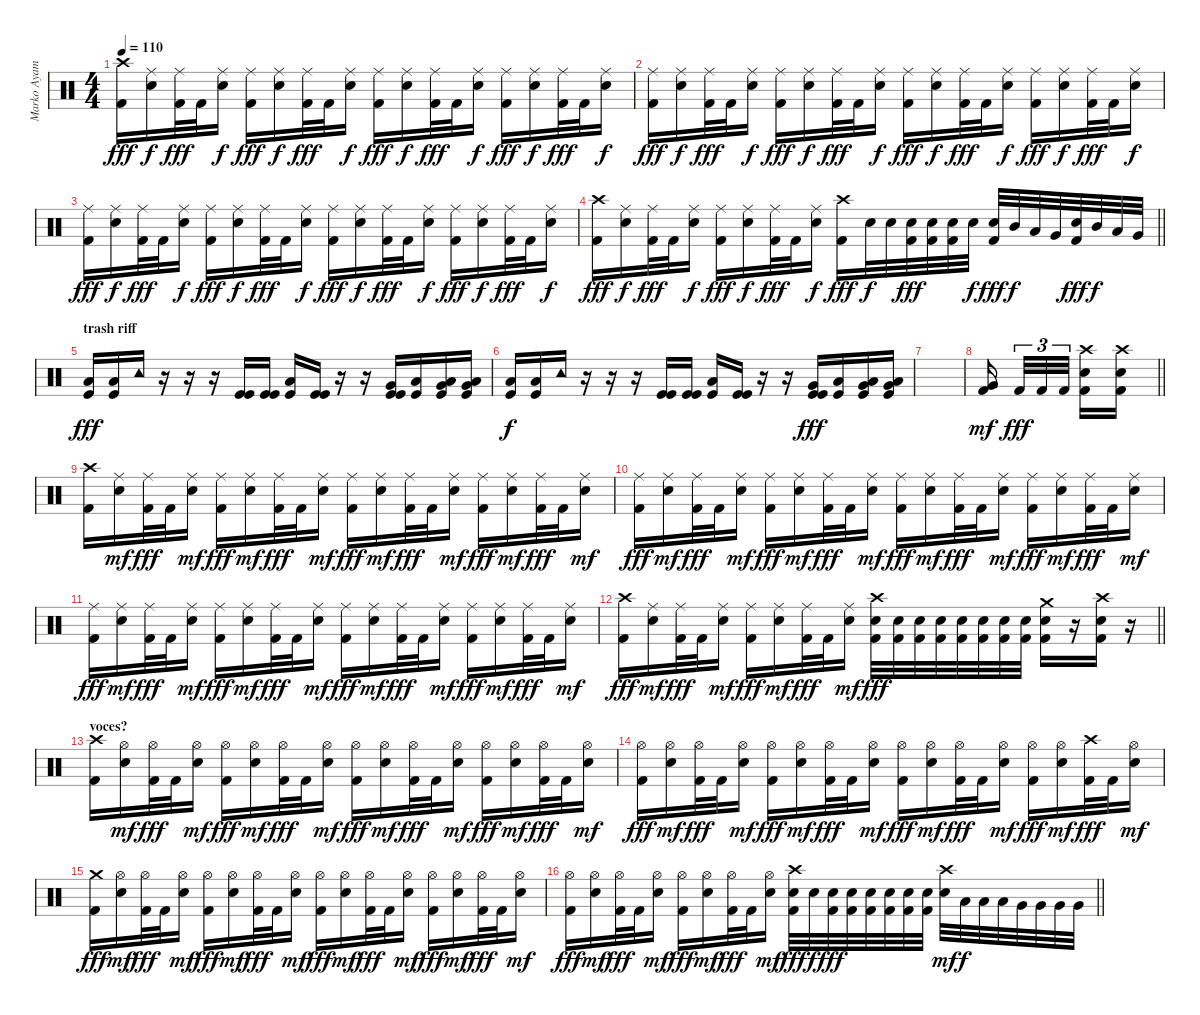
\track ("Marko Ayamani" "Marko Ayam") {instrument percussion}
\staff {score}
\articulation defaults
\ts (4 4)
\tempo 110
\clef neutral
\ks c
("Crash high (hit)" "Kick (hit) 2").16{dy fff} ("Ride (middle)" "Snare (hit) 2").16{dy f} ("Ride (middle)" "Kick (hit) 2").32{dy fff} "Kick (hit) 2".32 ("Ride (middle)" "Snare (hit) 2").16{dy f} ("Ride (middle)" "Kick (hit) 2").16{dy fff} ("Ride (middle)" "Snare (hit) 2").16{dy f} ("Ride (middle)" "Kick (hit) 2").32{dy fff} "Kick (hit) 2".32 ("Ride (middle)" "Snare (hit) 2").16{dy f} ("Ride (middle)" "Kick (hit) 2").16{dy fff} ("Ride (middle)" "Snare (hit) 2").16{dy f} ("Ride (middle)" "Kick (hit) 2").32{dy fff} "Kick (hit) 2".32 ("Ride (middle)" "Snare (hit) 2").16{dy f} ("Ride (middle)" "Kick (hit) 2").16{dy fff} ("Ride (middle)" "Snare (hit) 2").16{dy f} ("Ride (middle)" "Kick (hit) 2").32{dy fff} "Kick (hit) 2".32 ("Ride (middle)" "Snare (hit) 2").16{dy f} |
("Ride (middle)" "Kick (hit) 2").16{dy fff} ("Ride (middle)" "Snare (hit) 2").16{dy f} ("Ride (middle)" "Kick (hit) 2").32{dy fff} "Kick (hit) 2".32 ("Ride (middle)" "Snare (hit) 2").16{dy f} ("Ride (middle)" "Kick (hit) 2").16{dy fff} ("Ride (middle)" "Snare (hit) 2").16{dy f} ("Ride (middle)" "Kick (hit) 2").32{dy fff} "Kick (hit) 2".32 ("Ride (middle)" "Snare (hit) 2").16{dy f} ("Ride (middle)" "Kick (hit) 2").16{dy fff} ("Ride (middle)" "Snare (hit) 2").16{dy f} ("Ride (middle)" "Kick (hit) 2").32{dy fff} "Kick (hit) 2".32 ("Ride (middle)" "Snare (hit) 2").16{dy f} ("Ride (middle)" "Kick (hit) 2").16{dy fff} ("Ride (middle)" "Snare (hit) 2").16{dy f} ("Ride (middle)" "Kick (hit) 2").32{dy fff} "Kick (hit) 2".32 ("Ride (middle)" "Snare (hit) 2").16{dy f} |
("Ride (middle)" "Kick (hit) 2").16{dy fff} ("Ride (middle)" "Snare (hit) 2").16{dy f} ("Ride (middle)" "Kick (hit) 2").32{dy fff} "Kick (hit) 2".32 ("Ride (middle)" "Snare (hit) 2").16{dy f} ("Ride (middle)" "Kick (hit) 2").16{dy fff} ("Ride (middle)" "Snare (hit) 2").16{dy f} ("Ride (middle)" "Kick (hit) 2").32{dy fff} "Kick (hit) 2".32 ("Ride (middle)" "Snare (hit) 2").16{dy f} ("Ride (middle)" "Kick (hit) 2").16{dy fff} ("Ride (middle)" "Snare (hit) 2").16{dy f} ("Ride (middle)" "Kick (hit) 2").32{dy fff} "Kick (hit) 2".32 ("Ride (middle)" "Snare (hit) 2").16{dy f} ("Ride (middle)" "Kick (hit) 2").16{dy fff} ("Ride (middle)" "Snare (hit) 2").16{dy f} ("Ride (middle)" "Kick (hit) 2").32{dy fff} "Kick (hit) 2".32 ("Ride (middle)" "Snare (hit) 2").16{dy f} |
\barLineRight lightlight
("Crash high (hit)" "Kick (hit) 2").16{dy fff} ("Ride (middle)" "Snare (hit) 2").16{dy f} ("Ride (middle)" "Kick (hit) 2").32{dy fff} "Kick (hit) 2".32 ("Ride (middle)" "Snare (hit) 2").16{dy f} ("Ride (middle)" "Kick (hit) 2").16{dy fff} ("Ride (middle)" "Snare (hit) 2").16{dy f} ("Ride (middle)" "Kick (hit) 2").32{dy fff} "Kick (hit) 2".32 ("Ride (middle)" "Snare (hit) 2").16{dy f} ("Crash high (hit)" "Kick (hit) 2").16{dy fff} "Snare (hit) 2".32{dy f} "Snare (hit) 2".32 ("Snare (hit) 2" "Kick (hit) 2").32{dy fff} ("Snare (hit) 2" "Kick (hit) 2").32 ("Snare (hit) 2" "Kick (hit) 2").32 "Snare (hit) 2".32{dy f} ("Snare (hit) 2" "Kick (hit) 2").32{dy fff} "Mid Tom (hit)".32{dy f} "Low Tom (hit)".32 "Very Low Tom (hit)".32 ("Snare (hit) 2" "Kick (hit) 2").32{dy fff} "Mid Tom (hit)".32{dy f} "Low Tom (hit)".32 "Very Low Tom (hit)".32 |
\section ("" "trash riff")
("Kick (hit)" "Low Floor Tom (hit)").16{dy fff} ("Low Floor Tom (hit)" "Kick (hit)").16 "Tambourine (hit)".16 r.16 r.16 r.16 ("Kick (hit)" "Kick (hit)").16 ("Kick (hit)" "Kick (hit)").16 ("Low Floor Tom (hit)" "Kick (hit)").16 ("Kick (hit)" "Kick (hit)").16 r.16 r.16 ("Kick (hit)" "Very Low Tom (hit)" "Kick (hit)").16 ("Low Floor Tom (hit)" "Kick (hit)").16 ("Very Low Tom (hit)" "Low Floor Tom (hit)" "Kick (hit)").16 ("Low Floor Tom (hit)" "Very Low Tom (hit)" "Kick (hit)").16 |
("Kick (hit)" "Low Floor Tom (hit)").16{dy f} ("Low Floor Tom (hit)" "Kick (hit)").16 "Tambourine (hit)".16 r.16 r.16 r.16 ("Kick (hit)" "Kick (hit)").16 ("Kick (hit)" "Kick (hit)").16 ("Low Floor Tom (hit)" "Kick (hit)").16 ("Kick (hit)" "Kick (hit)").16 r.16 r.16 ("Kick (hit)" "Very Low Tom (hit)" "Kick (hit)").16{dy fff} ("Low Floor Tom (hit)" "Kick (hit)").16 ("Very Low Tom (hit)" "Low Floor Tom (hit)" "Kick (hit)").16 ("Low Floor Tom (hit)" "Very Low Tom (hit)" "Kick (hit)").16 |
|
\barLineRight lightlight
("Very Low Tom (hit)" "Kick (hit) 2").16{dy mf beam splitsecondary} "Kick (hit) 2".32{tu (3 2) dy fff} "Kick (hit) 2".32{tu (3 2)} "Kick (hit) 2".32{tu (3 2) beam splitsecondary} ("Crash high (hit)" "Snare (hit) 2" "Kick (hit) 2").16 ("Crash high (hit)" "Snare (hit) 2" "Kick (hit) 2").16 |
("Crash high (hit)" "Kick (hit) 2").16 ("Ride (middle)" "Snare (hit) 2").16{dy mf} ("Ride (middle)" "Kick (hit) 2").32{dy fff} "Kick (hit) 2".32 ("Ride (middle)" "Snare (hit) 2").16{dy mf} ("Ride (middle)" "Kick (hit) 2").16{dy fff} ("Ride (middle)" "Snare (hit) 2").16{dy mf} ("Ride (middle)" "Kick (hit) 2").32{dy fff} "Kick (hit) 2".32 ("Ride (middle)" "Snare (hit) 2").16{dy mf} ("Ride (middle)" "Kick (hit) 2").16{dy fff} ("Ride (middle)" "Snare (hit) 2").16{dy mf} ("Ride (middle)" "Kick (hit) 2").32{dy fff} "Kick (hit) 2".32 ("Ride (middle)" "Snare (hit) 2").16{dy mf} ("Ride (middle)" "Kick (hit) 2").16{dy fff} ("Ride (middle)" "Snare (hit) 2").16{dy mf} ("Ride (middle)" "Kick (hit) 2").32{dy fff} "Kick (hit) 2".32 ("Ride (middle)" "Snare (hit) 2").16{dy mf} |
("Ride (middle)" "Kick (hit) 2").16{dy fff} ("Ride (middle)" "Snare (hit) 2").16{dy mf} ("Ride (middle)" "Kick (hit) 2").32{dy fff} "Kick (hit) 2".32 ("Ride (middle)" "Snare (hit) 2").16{dy mf} ("Ride (middle)" "Kick (hit) 2").16{dy fff} ("Ride (middle)" "Snare (hit) 2").16{dy mf} ("Ride (middle)" "Kick (hit) 2").32{dy fff} "Kick (hit) 2".32 ("Ride (middle)" "Snare (hit) 2").16{dy mf} ("Ride (middle)" "Kick (hit) 2").16{dy fff} ("Ride (middle)" "Snare (hit) 2").16{dy mf} ("Ride (middle)" "Kick (hit) 2").32{dy fff} "Kick (hit) 2".32 ("Ride (middle)" "Snare (hit) 2").16{dy mf} ("Ride (middle)" "Kick (hit) 2").16{dy fff} ("Ride (middle)" "Snare (hit) 2").16{dy mf} ("Ride (middle)" "Kick (hit) 2").32{dy fff} "Kick (hit) 2".32 ("Ride (middle)" "Snare (hit) 2").16{dy mf} |
("Ride (middle)" "Kick (hit) 2").16{dy fff} ("Ride (middle)" "Snare (hit) 2").16{dy mf} ("Ride (middle)" "Kick (hit) 2").32{dy fff} "Kick (hit) 2".32 ("Ride (middle)" "Snare (hit) 2").16{dy mf} ("Ride (middle)" "Kick (hit) 2").16{dy fff} ("Ride (middle)" "Snare (hit) 2").16{dy mf} ("Ride (middle)" "Kick (hit) 2").32{dy fff} "Kick (hit) 2".32 ("Ride (middle)" "Snare (hit) 2").16{dy mf} ("Ride (middle)" "Kick (hit) 2").16{dy fff} ("Ride (middle)" "Snare (hit) 2").16{dy mf} ("Ride (middle)" "Kick (hit) 2").32{dy fff} "Kick (hit) 2".32 ("Ride (middle)" "Snare (hit) 2").16{dy mf} ("Ride (middle)" "Kick (hit) 2").16{dy fff} ("Ride (middle)" "Snare (hit) 2").16{dy mf} ("Ride (middle)" "Kick (hit) 2").32{dy fff} "Kick (hit) 2".32 ("Ride (middle)" "Snare (hit) 2").16{dy mf} |
\barLineRight lightlight
("Crash high (hit)" "Kick (hit) 2").16{dy fff} ("Ride (middle)" "Snare (hit) 2").16{dy mf} ("Ride (middle)" "Kick (hit) 2").32{dy fff} "Kick (hit) 2".32 ("Ride (middle)" "Snare (hit) 2").16{dy mf} ("Ride (middle)" "Kick (hit) 2").16{dy fff} ("Ride (middle)" "Snare (hit) 2").16{dy mf} ("Ride (middle)" "Kick (hit) 2").32{dy fff} "Kick (hit) 2".32 ("Ride (middle)" "Snare (hit) 2").16{dy mf} ("Crash high (hit)" "Snare (hit) 2" "Kick (hit) 2").32{dy fff} ("Snare (hit) 2" "Kick (hit) 2").32 ("Snare (hit) 2" "Kick (hit) 2").32 ("Snare (hit) 2" "Kick (hit) 2").32 ("Snare (hit) 2" "Kick (hit) 2").32 ("Snare (hit) 2" "Kick (hit) 2").32 ("Snare (hit) 2" "Kick (hit) 2").32 ("Snare (hit) 2" "Kick (hit) 2").32 ("Crash medium (hit)" "Snare (hit) 2" "Kick (hit) 2").16 r.16 ("Crash high (hit)" "Snare (hit) 2" "Kick (hit) 2").16 r.16 |
\section ("" "voces?")
("Crash high (hit)" "Kick (hit) 2").16 ("Hi-Hat (open)" "Snare (hit) 2").16{dy mf} ("Hi-Hat (open)" "Kick (hit) 2").32{dy fff} "Kick (hit) 2".32 ("Hi-Hat (open)" "Snare (hit) 2").16{dy mf} ("Hi-Hat (open)" "Kick (hit) 2").16{dy fff} ("Hi-Hat (open)" "Snare (hit) 2").16{dy mf} ("Hi-Hat (open)" "Kick (hit) 2").32{dy fff} "Kick (hit) 2".32 ("Hi-Hat (open)" "Snare (hit) 2").16{dy mf} ("Hi-Hat (open)" "Kick (hit) 2").16{dy fff} ("Hi-Hat (open)" "Snare (hit) 2").16{dy mf} ("Hi-Hat (open)" "Kick (hit) 2").32{dy fff} "Kick (hit) 2".32 ("Hi-Hat (open)" "Snare (hit) 2").16{dy mf} ("Hi-Hat (open)" "Kick (hit) 2").16{dy fff} ("Hi-Hat (open)" "Snare (hit) 2").16{dy mf} ("Hi-Hat (open)" "Kick (hit) 2").32{dy fff} "Kick (hit) 2".32 ("Hi-Hat (open)" "Snare (hit) 2").16{dy mf} |
("Hi-Hat (open)" "Kick (hit) 2").16{dy fff} ("Hi-Hat (open)" "Snare (hit) 2").16{dy mf} ("Hi-Hat (open)" "Kick (hit) 2").32{dy fff} "Kick (hit) 2".32 ("Hi-Hat (open)" "Snare (hit) 2").16{dy mf} ("Hi-Hat (open)" "Kick (hit) 2").16{dy fff} ("Hi-Hat (open)" "Snare (hit) 2").16{dy mf} ("Hi-Hat (open)" "Kick (hit) 2").32{dy fff} "Kick (hit) 2".32 ("Hi-Hat (open)" "Snare (hit) 2").16{dy mf} ("Hi-Hat (open)" "Kick (hit) 2").16{dy fff} ("Hi-Hat (open)" "Snare (hit) 2").16{dy mf} ("Hi-Hat (open)" "Kick (hit) 2").32{dy fff} "Kick (hit) 2".32 ("Hi-Hat (open)" "Snare (hit) 2").16{dy mf} ("Hi-Hat (open)" "Kick (hit) 2").16{dy fff} ("Hi-Hat (open)" "Snare (hit) 2").16{dy mf} ("Crash high (hit)" "Kick (hit) 2").32{dy fff} "Kick (hit) 2".32 ("Hi-Hat (open)" "Snare (hit) 2").16{dy mf} |
("Crash medium (hit)" "Kick (hit) 2").16{dy fff} ("Hi-Hat (open)" "Snare (hit) 2").16{dy mf} ("Hi-Hat (open)" "Kick (hit) 2").32{dy fff} "Kick (hit) 2".32 ("Hi-Hat (open)" "Snare (hit) 2").16{dy mf} ("Hi-Hat (open)" "Kick (hit) 2").16{dy fff} ("Hi-Hat (open)" "Snare (hit) 2").16{dy mf} ("Hi-Hat (open)" "Kick (hit) 2").32{dy fff} "Kick (hit) 2".32 ("Hi-Hat (open)" "Snare (hit) 2").16{dy mf} ("Hi-Hat (open)" "Kick (hit) 2").16{dy fff} ("Hi-Hat (open)" "Snare (hit) 2").16{dy mf} ("Hi-Hat (open)" "Kick (hit) 2").32{dy fff} "Kick (hit) 2".32 ("Hi-Hat (open)" "Snare (hit) 2").16{dy mf} ("Hi-Hat (open)" "Kick (hit) 2").16{dy fff} ("Hi-Hat (open)" "Snare (hit) 2").16{dy mf} ("Hi-Hat (open)" "Kick (hit) 2").32{dy fff} "Kick (hit) 2".32 ("Hi-Hat (open)" "Snare (hit) 2").16{dy mf} |
\barLineRight lightlight
("Hi-Hat (open)" "Kick (hit) 2").16{dy fff} ("Hi-Hat (open)" "Snare (hit) 2").16{dy mf} ("Hi-Hat (open)" "Kick (hit) 2").32{dy fff} "Kick (hit) 2".32 ("Hi-Hat (open)" "Snare (hit) 2").16{dy mf} ("Hi-Hat (open)" "Kick (hit) 2").16{dy fff} ("Hi-Hat (open)" "Snare (hit) 2").16{dy mf} ("Hi-Hat (open)" "Kick (hit) 2").32{dy fff} "Kick (hit) 2".32 ("Hi-Hat (open)" "Snare (hit) 2").16{dy mf} ("Crash high (hit)" "Snare (hit) 2" "Kick (hit) 2").32{dy fff} "Snare (hit) 2".32{dy f} ("Snare (hit) 2" "Kick (hit) 2").32{dy fff} ("Snare (hit) 2" "Kick (hit) 2").32 ("Snare (hit) 2" "Kick (hit) 2").32 ("Snare (hit) 2" "Kick (hit) 2").32 ("Snare (hit) 2" "Kick (hit) 2").32 ("Snare (hit) 2" "Kick (hit) 2").32 ("Crash high (hit)" "Snare (hit) 2").32{dy mf} "Low Tom (hit)".32{dy f} "Low Tom (hit)".32 "Low Tom (hit)".32 "Very Low Tom (hit)".32 "Very Low Tom (hit)".32 "Very Low Tom (hit)".32 "Very Low Tom (hit)".32
